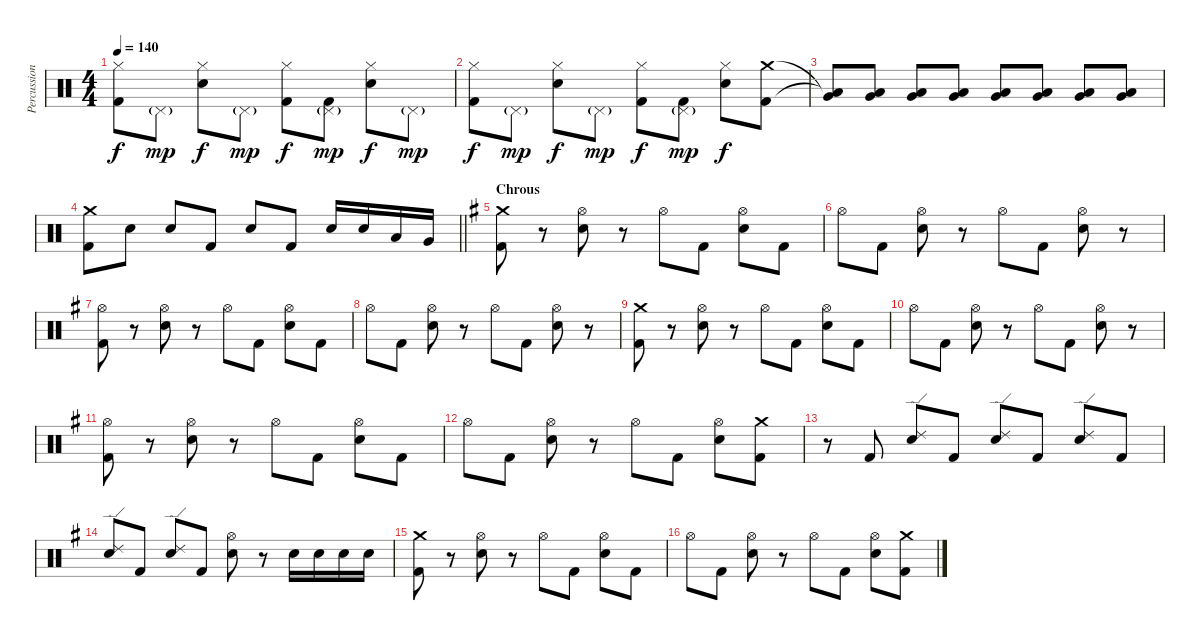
\track ("Percussion" "Percussion") {instrument percussion}
\staff {score}
\articulation defaults
\ts (4 4)
\tempo 140
\clef neutral
\ks c
("Hi-Hat (closed)" "Kick (hit) 2").8{dy f} "Pedal Hi-Hat (hit)"{g}.8{dy mp} ("Hi-Hat (closed)" "Electric Snare (hit)").8{dy f} "Pedal Hi-Hat (hit)"{g}.8{dy mp} ("Hi-Hat (closed)" "Kick (hit) 2").8{dy f} ("Pedal Hi-Hat (hit)"{g} "Kick (hit) 2").8{dy mp} ("Hi-Hat (closed)" "Electric Snare (hit)").8{dy f} "Pedal Hi-Hat (hit)"{g}.8{dy mp} |
("Hi-Hat (closed)" "Kick (hit) 2").8{dy f} "Pedal Hi-Hat (hit)"{g}.8{dy mp} ("Hi-Hat (closed)" "Electric Snare (hit)").8{dy f} "Pedal Hi-Hat (hit)"{g}.8{dy mp} ("Hi-Hat (closed)" "Kick (hit) 2").8{dy f} ("Pedal Hi-Hat (hit)"{g} "Kick (hit) 2").8{dy mp} ("Hi-Hat (closed)" "Electric Snare (hit)").8{dy f} ("Crash medium (hit)" "Kick (hit) 2").8 |
("Very Low Tom (hit)"{t} "Low Floor Tom (hit)"{t}).8 ("Very Low Tom (hit)" "Low Floor Tom (hit)").8 ("Very Low Tom (hit)" "Low Floor Tom (hit)").8 ("Very Low Tom (hit)" "Low Floor Tom (hit)").8 ("Very Low Tom (hit)" "Low Floor Tom (hit)").8 ("Very Low Tom (hit)" "Low Floor Tom (hit)").8 ("Very Low Tom (hit)" "Low Floor Tom (hit)").8 ("Very Low Tom (hit)" "Low Floor Tom (hit)").8 |
\barLineRight lightlight
("Crash medium (hit)" "Kick (hit) 2").8 "Electric Snare (hit)".8 "Electric Snare (hit)".8 "Kick (hit) 2".8 "Electric Snare (hit)".8 "Kick (hit) 2".8 "Electric Snare (hit)".16 "Electric Snare (hit)".16 "Low Tom (hit)".16 "Very Low Tom (hit)".16 |
\section ("" "Chrous")
\ks g
("Crash medium (hit)" "Kick (hit) 2").8 r.8 ("Hi-Hat (open)" "Electric Snare (hit)").8 r.8 "Hi-Hat (open)".8 "Kick (hit) 2".8 ("Hi-Hat (open)" "Electric Snare (hit)").8 "Kick (hit) 2".8 |
"Hi-Hat (open)".8 "Kick (hit) 2".8 ("Hi-Hat (open)" "Electric Snare (hit)").8 r.8 "Hi-Hat (open)".8 "Kick (hit) 2".8 ("Hi-Hat (open)" "Electric Snare (hit)").8 r.8 |
("Hi-Hat (open)" "Kick (hit) 2").8 r.8 ("Hi-Hat (open)" "Electric Snare (hit)").8 r.8 "Hi-Hat (open)".8 "Kick (hit) 2".8 ("Hi-Hat (open)" "Electric Snare (hit)").8 "Kick (hit) 2".8 |
"Hi-Hat (open)".8 "Kick (hit) 2".8 ("Hi-Hat (open)" "Electric Snare (hit)").8 r.8 "Hi-Hat (open)".8 "Kick (hit) 2".8 ("Hi-Hat (open)" "Electric Snare (hit)").8 r.8 |
("Crash medium (hit)" "Kick (hit) 2").8 r.8 ("Hi-Hat (open)" "Electric Snare (hit)").8 r.8 "Hi-Hat (open)".8 "Kick (hit) 2".8 ("Hi-Hat (open)" "Electric Snare (hit)").8 "Kick (hit) 2".8 |
"Hi-Hat (open)".8 "Kick (hit) 2".8 ("Hi-Hat (open)" "Electric Snare (hit)").8 r.8 "Hi-Hat (open)".8 "Kick (hit) 2".8 ("Hi-Hat (open)" "Electric Snare (hit)").8 r.8 |
("Hi-Hat (open)" "Kick (hit) 2").8 r.8 ("Hi-Hat (open)" "Electric Snare (hit)").8 r.8 "Hi-Hat (open)".8 "Kick (hit) 2".8 ("Hi-Hat (open)" "Electric Snare (hit)").8 "Kick (hit) 2".8 |
"Hi-Hat (open)".8 "Kick (hit) 2".8 ("Hi-Hat (open)" "Electric Snare (hit)").8 r.8 "Hi-Hat (open)".8 "Kick (hit) 2".8 ("Hi-Hat (open)" "Electric Snare (hit)").8 ("Crash medium (hit)" "Kick (hit) 2").8 |
r.8 "Kick (hit) 2".8 ("Ride (edge) 2" "Electric Snare (hit)").8 "Kick (hit) 2".8 ("Ride (edge) 2" "Electric Snare (hit)").8 "Kick (hit) 2".8 ("Ride (edge) 2" "Electric Snare (hit)").8 "Kick (hit) 2".8 |
("Ride (edge) 2" "Electric Snare (hit)").8 "Kick (hit) 2".8 ("Ride (edge) 2" "Electric Snare (hit)").8 "Kick (hit) 2".8 ("Hi-Hat (open)" "Electric Snare (hit)").8 r.8 "Electric Snare (hit)".16 "Electric Snare (hit)".16 "Electric Snare (hit)".16 "Electric Snare (hit)".16 |
("Crash medium (hit)" "Kick (hit) 2").8 r.8 ("Hi-Hat (open)" "Electric Snare (hit)").8 r.8 "Hi-Hat (open)".8 "Kick (hit) 2".8 ("Hi-Hat (open)" "Electric Snare (hit)").8 "Kick (hit) 2".8 |
"Hi-Hat (open)".8 "Kick (hit) 2".8 ("Hi-Hat (open)" "Electric Snare (hit)").8 r.8 "Hi-Hat (open)".8 "Kick (hit) 2".8 ("Hi-Hat (open)" "Electric Snare (hit)").8 ("Crash medium (hit)" "Kick (hit) 2").8
